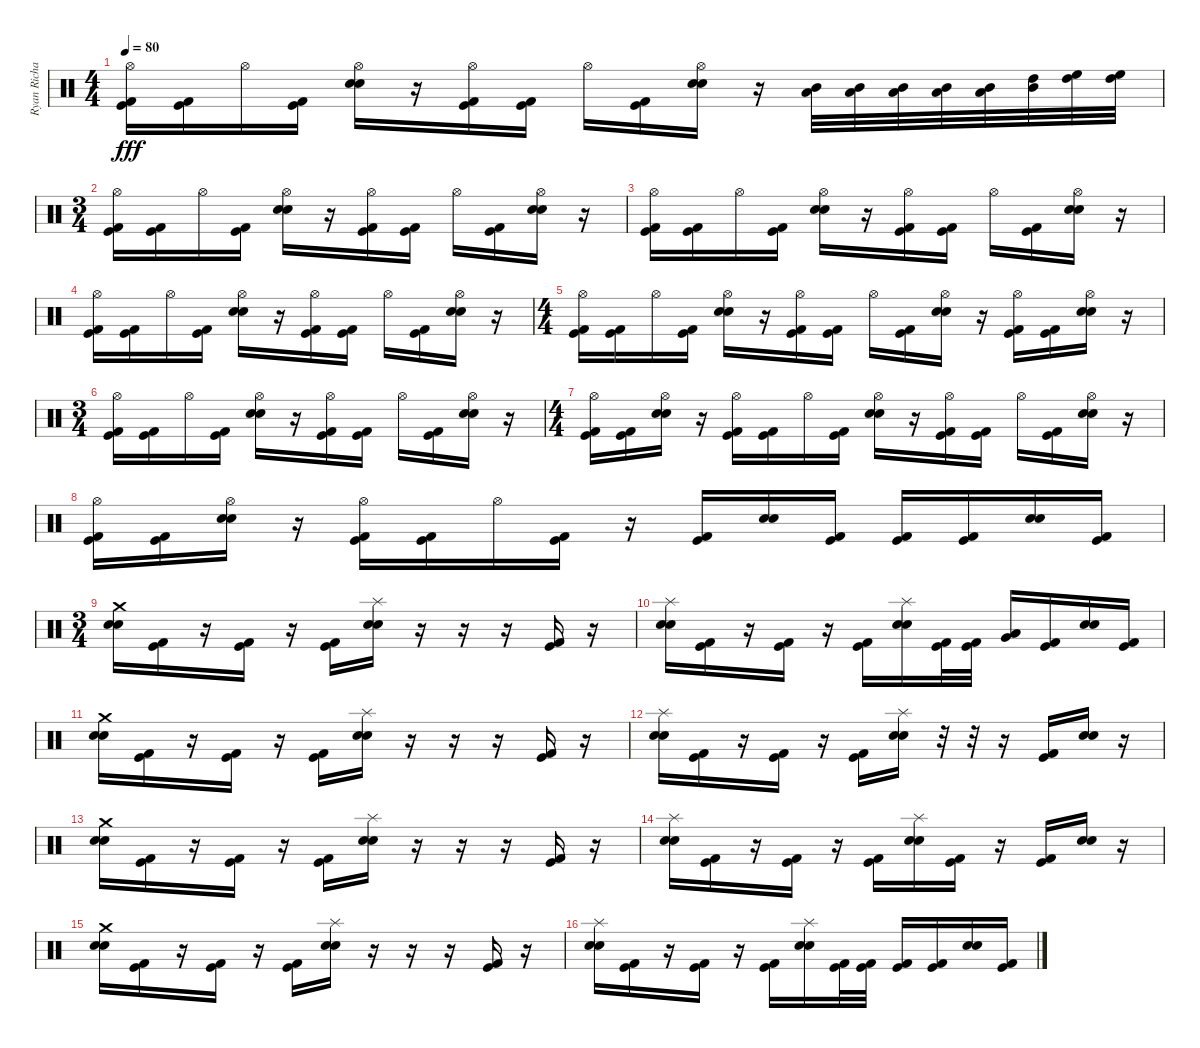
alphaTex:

\track ("Ryan Richards" "Ryan Richa") {instrument percussion}
\staff {score}
\articulation defaults
\ts (4 4)
\tempo 80
\clef neutral
\ks c
("Kick (hit)" "Hi-Hat (open)" "Kick (hit) 2").16{dy fff} ("Kick (hit)" "Kick (hit) 2").16 "Hi-Hat (open)".16 ("Kick (hit)" "Kick (hit) 2").16 ("Hi-Hat (open)" "Snare (hit) 2" "Electric Snare (hit)").16 r.16 ("Kick (hit)" "Hi-Hat (open)" "Kick (hit) 2").16 ("Kick (hit)" "Kick (hit) 2").16 "Hi-Hat (open)".16 ("Kick (hit)" "Kick (hit) 2").16 ("Hi-Hat (open)" "Snare (hit) 2" "Electric Snare (hit)").16 r.16 ("Mid Tom (hit)" "Low Tom (hit)").32 ("Mid Tom (hit)" "Low Tom (hit)").32 ("Mid Tom (hit)" "Low Tom (hit)").32 ("Mid Tom (hit)" "Low Tom (hit)").32 ("Mid Tom (hit)" "Low Tom (hit)").32 ("High Tom (hit)" "Mid Tom (hit)").32 ("High Floor Tom (hit)" "High Tom (hit)").32 ("High Floor Tom (hit)" "High Tom (hit)").32 |
\ts (3 4)
("Kick (hit)" "Hi-Hat (open)" "Kick (hit) 2").16 ("Kick (hit)" "Kick (hit) 2").16 "Hi-Hat (open)".16 ("Kick (hit)" "Kick (hit) 2").16 ("Hi-Hat (open)" "Snare (hit) 2" "Electric Snare (hit)").16 r.16 ("Kick (hit)" "Hi-Hat (open)" "Kick (hit) 2").16 ("Kick (hit)" "Kick (hit) 2").16 "Hi-Hat (open)".16 ("Kick (hit)" "Kick (hit) 2").16 ("Hi-Hat (open)" "Snare (hit) 2" "Electric Snare (hit)").16 r.16 |
("Kick (hit)" "Hi-Hat (open)" "Kick (hit) 2").16 ("Kick (hit)" "Kick (hit) 2").16 "Hi-Hat (open)".16 ("Kick (hit)" "Kick (hit) 2").16 ("Hi-Hat (open)" "Snare (hit) 2" "Electric Snare (hit)").16 r.16 ("Kick (hit)" "Hi-Hat (open)" "Kick (hit) 2").16 ("Kick (hit)" "Kick (hit) 2").16 "Hi-Hat (open)".16 ("Kick (hit)" "Kick (hit) 2").16 ("Hi-Hat (open)" "Snare (hit) 2" "Electric Snare (hit)").16 r.16 |
("Kick (hit)" "Hi-Hat (open)" "Kick (hit) 2").16 ("Kick (hit)" "Kick (hit) 2").16 "Hi-Hat (open)".16 ("Kick (hit)" "Kick (hit) 2").16 ("Hi-Hat (open)" "Snare (hit) 2" "Electric Snare (hit)").16 r.16 ("Kick (hit)" "Hi-Hat (open)" "Kick (hit) 2").16 ("Kick (hit)" "Kick (hit) 2").16 "Hi-Hat (open)".16 ("Kick (hit)" "Kick (hit) 2").16 ("Hi-Hat (open)" "Snare (hit) 2" "Electric Snare (hit)").16 r.16 |
\ts (4 4)
("Kick (hit)" "Hi-Hat (open)" "Kick (hit) 2").16 ("Kick (hit)" "Kick (hit) 2").16 "Hi-Hat (open)".16 ("Kick (hit)" "Kick (hit) 2").16 ("Hi-Hat (open)" "Snare (hit) 2" "Electric Snare (hit)").16 r.16 ("Kick (hit)" "Hi-Hat (open)" "Kick (hit) 2").16 ("Kick (hit)" "Kick (hit) 2").16 "Hi-Hat (open)".16 ("Kick (hit)" "Kick (hit) 2").16 ("Hi-Hat (open)" "Snare (hit) 2" "Electric Snare (hit)").16 r.16 ("Kick (hit)" "Hi-Hat (open)" "Kick (hit) 2").16 ("Kick (hit)" "Kick (hit) 2").16 ("Hi-Hat (open)" "Snare (hit) 2" "Electric Snare (hit)").16 r.16 |
\ts (3 4)
("Kick (hit)" "Hi-Hat (open)" "Kick (hit) 2").16 ("Kick (hit)" "Kick (hit) 2").16 "Hi-Hat (open)".16 ("Kick (hit)" "Kick (hit) 2").16 ("Hi-Hat (open)" "Snare (hit) 2" "Electric Snare (hit)").16 r.16 ("Kick (hit)" "Hi-Hat (open)" "Kick (hit) 2").16 ("Kick (hit)" "Kick (hit) 2").16 "Hi-Hat (open)".16 ("Kick (hit)" "Kick (hit) 2").16 ("Hi-Hat (open)" "Snare (hit) 2" "Electric Snare (hit)").16 r.16 |
\ts (4 4)
("Kick (hit)" "Hi-Hat (open)" "Kick (hit) 2").16 ("Kick (hit)" "Kick (hit) 2").16 ("Hi-Hat (open)" "Snare (hit) 2" "Electric Snare (hit)").16 r.16 ("Kick (hit)" "Hi-Hat (open)" "Kick (hit) 2").16 ("Kick (hit)" "Kick (hit) 2").16 "Hi-Hat (open)".16 ("Kick (hit)" "Kick (hit) 2").16 ("Hi-Hat (open)" "Snare (hit) 2" "Electric Snare (hit)").16 r.16 ("Kick (hit)" "Hi-Hat (open)" "Kick (hit) 2").16 ("Kick (hit)" "Kick (hit) 2").16 "Hi-Hat (open)".16 ("Kick (hit)" "Kick (hit) 2").16 ("Hi-Hat (open)" "Snare (hit) 2" "Electric Snare (hit)").16 r.16 |
("Kick (hit)" "Hi-Hat (open)" "Kick (hit) 2").16 ("Kick (hit)" "Kick (hit) 2").16 ("Hi-Hat (open)" "Snare (hit) 2" "Electric Snare (hit)").16 r.16 ("Kick (hit)" "Hi-Hat (open)" "Kick (hit) 2").16 ("Kick (hit)" "Kick (hit) 2").16 "Hi-Hat (open)".16 ("Kick (hit)" "Kick (hit) 2").16 r.16 ("Kick (hit)" "Kick (hit) 2").16 ("Snare (hit) 2" "Electric Snare (hit)").16 ("Kick (hit)" "Kick (hit) 2").16 ("Kick (hit)" "Kick (hit) 2").16 ("Kick (hit)" "Kick (hit) 2").16 ("Snare (hit) 2" "Electric Snare (hit)").16 ("Kick (hit)" "Kick (hit) 2").16 |
\ts (3 4)
("Crash medium (hit)" "Snare (hit) 2" "Electric Snare (hit)").16 ("Kick (hit)" "Kick (hit) 2").16 r.16 ("Kick (hit)" "Kick (hit) 2").16 r.16 ("Kick (hit)" "Kick (hit) 2").16 ("Splash (hit)" "Snare (hit) 2" "Electric Snare (hit)").16 r.16 r.16 r.16 ("Kick (hit)" "Kick (hit) 2").16 r.16 |
("Splash (hit)" "Snare (hit) 2" "Electric Snare (hit)").16 ("Kick (hit)" "Kick (hit) 2").16 r.16 ("Kick (hit)" "Kick (hit) 2").16 r.16 ("Kick (hit)" "Kick (hit) 2").16 ("Splash (hit)" "Snare (hit) 2" "Electric Snare (hit)").16 ("Kick (hit)" "Kick (hit) 2").32 ("Kick (hit)" "Kick (hit) 2").32 ("Very Low Tom (hit)" "Low Floor Tom (hit)").16 ("Kick (hit)" "Kick (hit) 2").16 ("Snare (hit) 2" "Electric Snare (hit)").16 ("Kick (hit)" "Kick (hit) 2").16 |
("Crash medium (hit)" "Snare (hit) 2" "Electric Snare (hit)").16 ("Kick (hit)" "Kick (hit) 2").16 r.16 ("Kick (hit)" "Kick (hit) 2").16 r.16 ("Kick (hit)" "Kick (hit) 2").16 ("Splash (hit)" "Snare (hit) 2" "Electric Snare (hit)").16 r.16 r.16 r.16 ("Kick (hit)" "Kick (hit) 2").16 r.16 |
("Splash (hit)" "Snare (hit) 2" "Electric Snare (hit)").16 ("Kick (hit)" "Kick (hit) 2").16 r.16 ("Kick (hit)" "Kick (hit) 2").16 r.16 ("Kick (hit)" "Kick (hit) 2").16 ("Splash (hit)" "Snare (hit) 2" "Electric Snare (hit)").16 r.32 r.32 r.16 ("Kick (hit)" "Kick (hit) 2").16 ("Snare (hit) 2" "Electric Snare (hit)").16 r.16 |
("Crash medium (hit)" "Snare (hit) 2" "Electric Snare (hit)").16 ("Kick (hit)" "Kick (hit) 2").16 r.16 ("Kick (hit)" "Kick (hit) 2").16 r.16 ("Kick (hit)" "Kick (hit) 2").16 ("Splash (hit)" "Snare (hit) 2" "Electric Snare (hit)").16 r.16 r.16 r.16 ("Kick (hit)" "Kick (hit) 2").16 r.16 |
("Splash (hit)" "Snare (hit) 2" "Electric Snare (hit)").16 ("Kick (hit)" "Kick (hit) 2").16 r.16 ("Kick (hit)" "Kick (hit) 2").16 r.16 ("Kick (hit)" "Kick (hit) 2").16 ("Splash (hit)" "Snare (hit) 2" "Electric Snare (hit)").16 ("Kick (hit)" "Kick (hit) 2").16 r.16 ("Kick (hit)" "Kick (hit) 2").16 ("Snare (hit) 2" "Electric Snare (hit)").16 r.16 |
("Crash medium (hit)" "Snare (hit) 2" "Electric Snare (hit)").16 ("Kick (hit)" "Kick (hit) 2").16 r.16 ("Kick (hit)" "Kick (hit) 2").16 r.16 ("Kick (hit)" "Kick (hit) 2").16 ("Splash (hit)" "Snare (hit) 2" "Electric Snare (hit)").16 r.16 r.16 r.16 ("Kick (hit)" "Kick (hit) 2").16 r.16 |
("Splash (hit)" "Snare (hit) 2" "Electric Snare (hit)").16 ("Kick (hit)" "Kick (hit) 2").16 r.16 ("Kick (hit)" "Kick (hit) 2").16 r.16 ("Kick (hit)" "Kick (hit) 2").16 ("Splash (hit)" "Snare (hit) 2" "Electric Snare (hit)").16 ("Kick (hit)" "Kick (hit) 2").32 ("Kick (hit)" "Kick (hit) 2").32 ("Kick (hit)" "Kick (hit) 2").16 ("Kick (hit)" "Kick (hit) 2").16 ("Snare (hit) 2" "Electric Snare (hit)").16 ("Kick (hit)" "Kick (hit) 2").16
